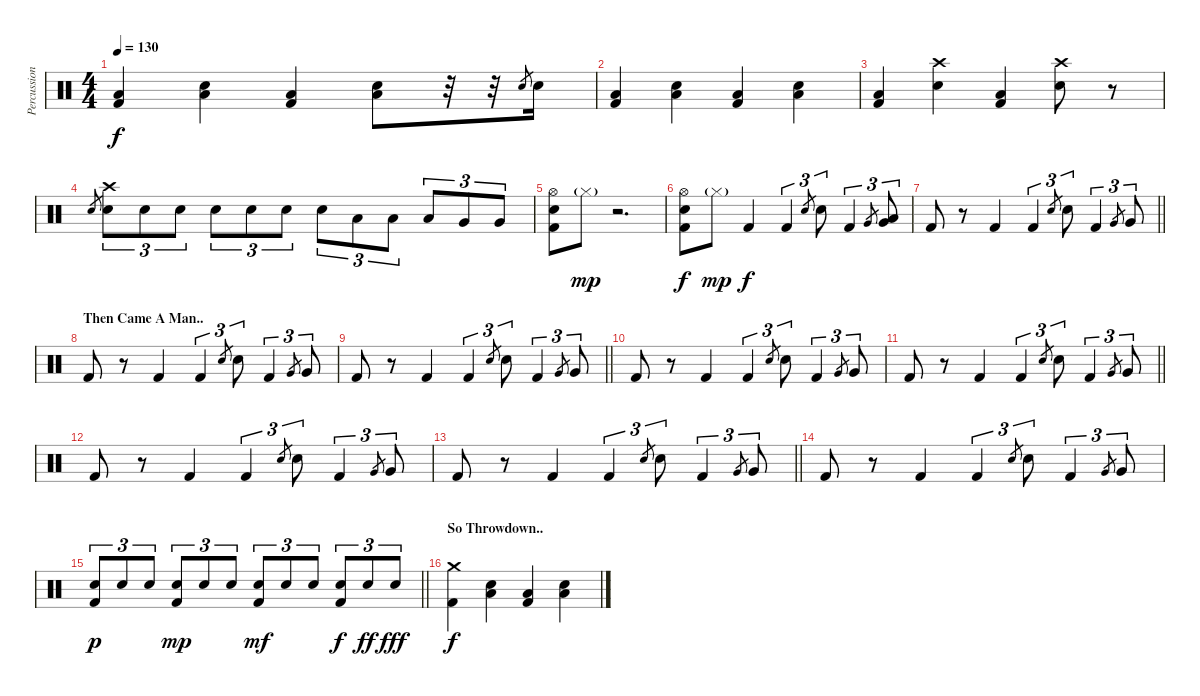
\track ("Percussion" "Percussion") {instrument percussion}
\staff {score}
\articulation defaults
\ts (4 4)
\tempo 130
\clef neutral
\ks c
("Low Floor Tom (hit)" "Kick (hit) 2").4{dy f} ("Low Floor Tom (hit)" "Electric Snare (hit)").4 ("Low Floor Tom (hit)" "Kick (hit) 2").4 ("Low Floor Tom (hit)" "Electric Snare (hit)").8 r.32 r.32 "Electric Snare (hit)".8{gr} "Electric Snare (hit)".16 |
("Low Floor Tom (hit)" "Kick (hit) 2").4 ("Low Floor Tom (hit)" "Electric Snare (hit)").4 ("Low Floor Tom (hit)" "Kick (hit) 2").4 ("Low Floor Tom (hit)" "Electric Snare (hit)").4 |
("Low Floor Tom (hit)" "Kick (hit) 2").4 ("Crash high (hit)" "Electric Snare (hit)").4 ("Low Floor Tom (hit)" "Kick (hit) 2").4 ("Crash high (hit)" "Electric Snare (hit)").8 r.8 |
"Electric Snare (hit)".8{gr} ("Crash high (hit)" "Electric Snare (hit)").8{tu (3 2)} "Electric Snare (hit)".8{tu (3 2)} "Electric Snare (hit)".8{tu (3 2)} "Electric Snare (hit)".8{tu (3 2)} "Electric Snare (hit)".8{tu (3 2)} "Electric Snare (hit)".8{tu (3 2)} "Electric Snare (hit)".8{tu (3 2)} "Low Tom (hit)".8{tu (3 2)} "Low Tom (hit)".8{tu (3 2)} "Low Tom (hit)".8{tu (3 2)} "Very Low Tom (hit)".8{tu (3 2)} "Very Low Tom (hit)".8{tu (3 2)} |
("Electric Snare (hit)" "Hi-Hat (open)" "Kick (hit) 2").8 "Hi-Hat (closed)"{g}.8{dy mp} r.2{d} |
("Electric Snare (hit)" "Hi-Hat (open)" "Kick (hit) 2").8{dy f} "Hi-Hat (closed)"{g}.8{dy mp} "Kick (hit) 2".4{dy f} "Kick (hit) 2".4{tu (3 2)} "Electric Snare (hit)".8{gr} "Electric Snare (hit)".8{tu (3 2)} "Kick (hit) 2".4{tu (3 2)} "Very Low Tom (hit)".8{gr} ("Low Floor Tom (hit)" "Very Low Tom (hit)").8{tu (3 2)} |
\barLineRight lightlight "Kick (hit) 2".8
r.8 "Kick (hit) 2".4 "Kick (hit) 2".4{tu (3 2)} "Electric Snare (hit)".8{gr} "Electric Snare (hit)".8{tu (3 2)} "Kick (hit) 2".4{tu (3 2)} "Very Low Tom (hit)".8{gr} "Very Low Tom (hit)".8{tu (3 2)} |
\section ("" "Then Came A Man..")
"Kick (hit) 2".8 r.8 "Kick (hit) 2".4 "Kick (hit) 2".4{tu (3 2)} "Electric Snare (hit)".8{gr} "Electric Snare (hit)".8{tu (3 2)} "Kick (hit) 2".4{tu (3 2)} "Very Low Tom (hit)".8{gr} "Very Low Tom (hit)".8{tu (3 2)} |
\barLineRight lightlight "Kick (hit) 2".8
r.8 "Kick (hit) 2".4 "Kick (hit) 2".4{tu (3 2)} "Electric Snare (hit)".8{gr} "Electric Snare (hit)".8{tu (3 2)} "Kick (hit) 2".4{tu (3 2)} "Very Low Tom (hit)".8{gr} "Very Low Tom (hit)".8{tu (3 2)} |
"Kick (hit) 2".8 r.8 "Kick (hit) 2".4 "Kick (hit) 2".4{tu (3 2)} "Electric Snare (hit)".8{gr} "Electric Snare (hit)".8{tu (3 2)} "Kick (hit) 2".4{tu (3 2)} "Very Low Tom (hit)".8{gr} "Very Low Tom (hit)".8{tu (3 2)} |
\barLineRight lightlight "Kick (hit) 2".8
r.8 "Kick (hit) 2".4 "Kick (hit) 2".4{tu (3 2)} "Electric Snare (hit)".8{gr} "Electric Snare (hit)".8{tu (3 2)} "Kick (hit) 2".4{tu (3 2)} "Very Low Tom (hit)".8{gr} "Very Low Tom (hit)".8{tu (3 2)} |
"Kick (hit) 2".8 r.8 "Kick (hit) 2".4 "Kick (hit) 2".4{tu (3 2)} "Electric Snare (hit)".8{gr} "Electric Snare (hit)".8{tu (3 2)} "Kick (hit) 2".4{tu (3 2)} "Very Low Tom (hit)".8{gr} "Very Low Tom (hit)".8{tu (3 2)} |
\barLineRight lightlight "Kick (hit) 2".8
r.8 "Kick (hit) 2".4 "Kick (hit) 2".4{tu (3 2)} "Electric Snare (hit)".8{gr} "Electric Snare (hit)".8{tu (3 2)} "Kick (hit) 2".4{tu (3 2)} "Very Low Tom (hit)".8{gr} "Very Low Tom (hit)".8{tu (3 2)} |
"Kick (hit) 2".8 r.8 "Kick (hit) 2".4 "Kick (hit) 2".4{tu (3 2)} "Electric Snare (hit)".8{gr} "Electric Snare (hit)".8{tu (3 2)} "Kick (hit) 2".4{tu (3 2)} "Very Low Tom (hit)".8{gr} "Very Low Tom (hit)".8{tu (3 2)} |
\barLineRight lightlight
("Electric Snare (hit)" "Kick (hit) 2").8{tu (3 2) dy p} "Electric Snare (hit)".8{tu (3 2)} "Electric Snare (hit)".8{tu (3 2)} ("Electric Snare (hit)" "Kick (hit) 2").8{tu (3 2) dy mp} "Electric Snare (hit)".8{tu (3 2)} "Electric Snare (hit)".8{tu (3 2)} ("Electric Snare (hit)" "Kick (hit) 2").8{tu (3 2) dy mf} "Electric Snare (hit)".8{tu (3 2)} "Electric Snare (hit)".8{tu (3 2)} ("Electric Snare (hit)" "Kick (hit) 2").8{tu (3 2) dy f} "Electric Snare (hit)".8{tu (3 2) dy ff} "Electric Snare (hit)".8{tu (3 2) dy fff} |
\section ("" "So Throwdown..")
("Crash medium (hit)" "Kick (hit) 2").4{dy f} ("Low Floor Tom (hit)" "Electric Snare (hit)").4 ("Low Floor Tom (hit)" "Kick (hit) 2").4 ("Low Floor Tom (hit)" "Electric Snare (hit)").4
